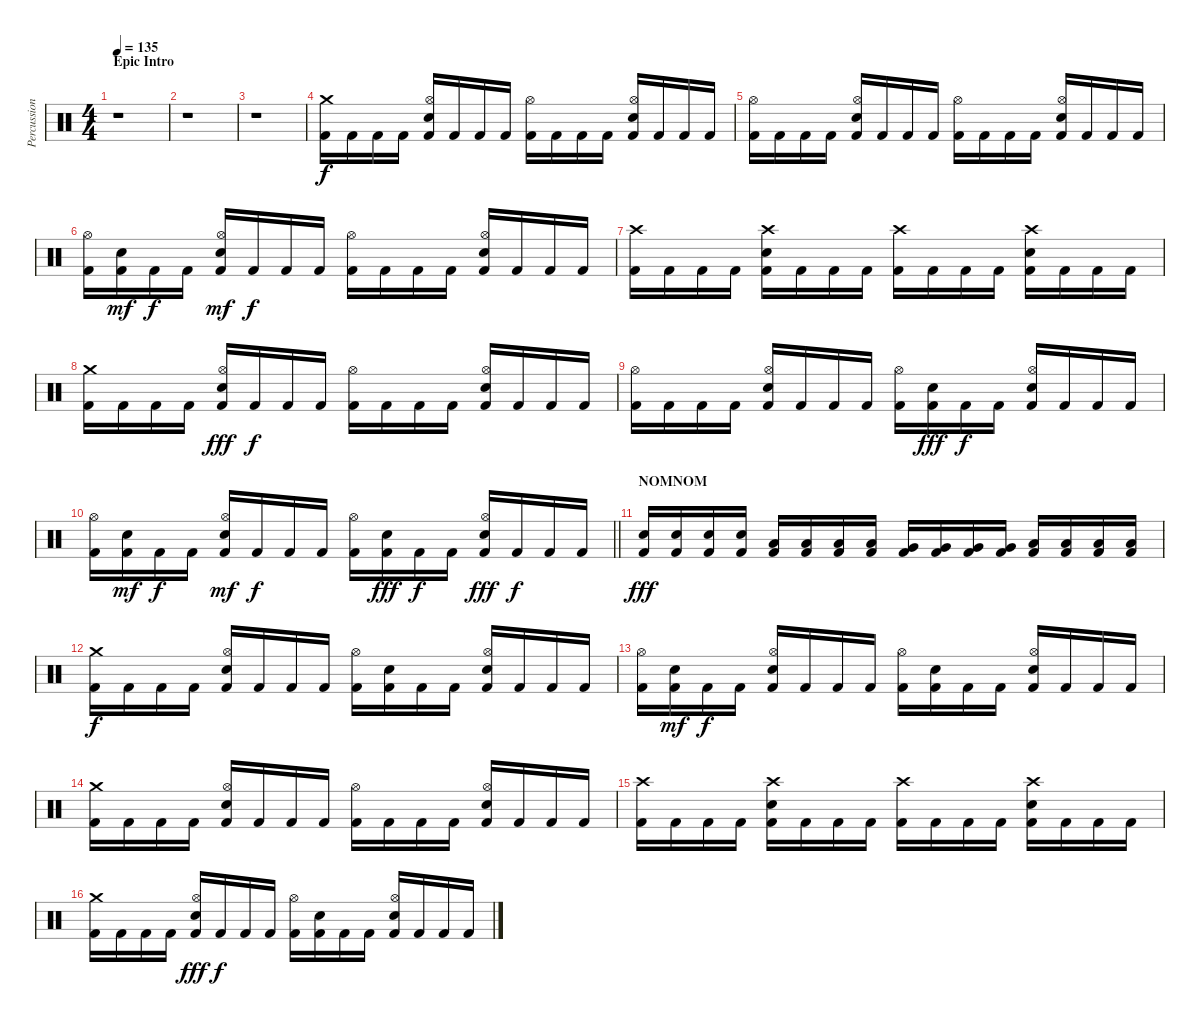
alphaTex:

\track ("Percussion" "Percussion") {instrument percussion}
\staff {score}
\articulation defaults
\ts (4 4)
\section ("" "Epic Intro")
\tempo 135
\clef neutral
\ks c
r.1{dy f} |
r.1 |
r.1 |
("Crash medium (hit)" "Kick (hit) 2").16 "Kick (hit) 2".16 "Kick (hit) 2".16 "Kick (hit) 2".16 ("Hi-Hat (open)" "Electric Snare (hit)" "Kick (hit) 2").16 "Kick (hit) 2".16 "Kick (hit) 2".16 "Kick (hit) 2".16 ("Hi-Hat (open)" "Kick (hit) 2").16 "Kick (hit) 2".16 "Kick (hit) 2".16 "Kick (hit) 2".16 ("Hi-Hat (open)" "Electric Snare (hit)" "Kick (hit) 2").16 "Kick (hit) 2".16 "Kick (hit) 2".16 "Kick (hit) 2".16 |
("Hi-Hat (open)" "Kick (hit) 2").16 "Kick (hit) 2".16 "Kick (hit) 2".16 "Kick (hit) 2".16 ("Hi-Hat (open)" "Electric Snare (hit)" "Kick (hit) 2").16 "Kick (hit) 2".16 "Kick (hit) 2".16 "Kick (hit) 2".16 ("Hi-Hat (open)" "Kick (hit) 2").16 "Kick (hit) 2".16 "Kick (hit) 2".16 "Kick (hit) 2".16 ("Hi-Hat (open)" "Electric Snare (hit)" "Kick (hit) 2").16 "Kick (hit) 2".16 "Kick (hit) 2".16 "Kick (hit) 2".16 |
("Hi-Hat (open)" "Kick (hit) 2").16 ("Electric Snare (hit)" "Kick (hit) 2").16{dy mf} "Kick (hit) 2".16{dy f} "Kick (hit) 2".16 ("Hi-Hat (open)" "Electric Snare (hit)" "Kick (hit) 2").16{dy mf} "Kick (hit) 2".16{dy f} "Kick (hit) 2".16 "Kick (hit) 2".16 ("Hi-Hat (open)" "Kick (hit) 2").16 "Kick (hit) 2".16 "Kick (hit) 2".16 "Kick (hit) 2".16 ("Hi-Hat (open)" "Electric Snare (hit)" "Kick (hit) 2").16 "Kick (hit) 2".16 "Kick (hit) 2".16 "Kick (hit) 2".16 |
("Crash high (hit)" "Kick (hit) 2").16 "Kick (hit) 2".16 "Kick (hit) 2".16 "Kick (hit) 2".16 ("Crash high (hit)" "Electric Snare (hit)" "Kick (hit) 2").16 "Kick (hit) 2".16 "Kick (hit) 2".16 "Kick (hit) 2".16 ("Crash high (hit)" "Kick (hit) 2").16 "Kick (hit) 2".16 "Kick (hit) 2".16 "Kick (hit) 2".16 ("Crash high (hit)" "Electric Snare (hit)" "Kick (hit) 2").16 "Kick (hit) 2".16 "Kick (hit) 2".16 "Kick (hit) 2".16 |
("Crash medium (hit)" "Kick (hit) 2").16 "Kick (hit) 2".16 "Kick (hit) 2".16 "Kick (hit) 2".16 ("Hi-Hat (open)" "Electric Snare (hit)" "Kick (hit) 2").16{dy fff} "Kick (hit) 2".16{dy f} "Kick (hit) 2".16 "Kick (hit) 2".16 ("Hi-Hat (open)" "Kick (hit) 2").16 "Kick (hit) 2".16 "Kick (hit) 2".16 "Kick (hit) 2".16 ("Hi-Hat (open)" "Electric Snare (hit)" "Kick (hit) 2").16 "Kick (hit) 2".16 "Kick (hit) 2".16 "Kick (hit) 2".16 |
("Hi-Hat (open)" "Kick (hit) 2").16 "Kick (hit) 2".16 "Kick (hit) 2".16 "Kick (hit) 2".16 ("Hi-Hat (open)" "Electric Snare (hit)" "Kick (hit) 2").16 "Kick (hit) 2".16 "Kick (hit) 2".16 "Kick (hit) 2".16 ("Hi-Hat (open)" "Kick (hit) 2").16 ("Electric Snare (hit)" "Kick (hit) 2").16{dy fff} "Kick (hit) 2".16{dy f} "Kick (hit) 2".16 ("Hi-Hat (open)" "Electric Snare (hit)" "Kick (hit) 2").16 "Kick (hit) 2".16 "Kick (hit) 2".16 "Kick (hit) 2".16 |
\barLineRight lightlight
("Hi-Hat (open)" "Kick (hit) 2").16 ("Electric Snare (hit)" "Kick (hit) 2").16{dy mf} "Kick (hit) 2".16{dy f} "Kick (hit) 2".16 ("Hi-Hat (open)" "Electric Snare (hit)" "Kick (hit) 2").16{dy mf} "Kick (hit) 2".16{dy f} "Kick (hit) 2".16 "Kick (hit) 2".16 ("Hi-Hat (open)" "Kick (hit) 2").16 ("Electric Snare (hit)" "Kick (hit) 2").16{dy fff} "Kick (hit) 2".16{dy f} "Kick (hit) 2".16 ("Hi-Hat (open)" "Electric Snare (hit)" "Kick (hit) 2").16{dy fff} "Kick (hit) 2".16{dy f} "Kick (hit) 2".16 "Kick (hit) 2".16 |
\section ("" "NOMNOM")
("Electric Snare (hit)" "Kick (hit) 2").16{dy fff} ("Electric Snare (hit)" "Kick (hit) 2").16 ("Electric Snare (hit)" "Kick (hit) 2").16 ("Electric Snare (hit)" "Kick (hit) 2").16 ("Low Tom (hit)" "Kick (hit) 2").16 ("Low Tom (hit)" "Kick (hit) 2").16 ("Low Tom (hit)" "Kick (hit) 2").16 ("Low Tom (hit)" "Kick (hit) 2").16 ("Very Low Tom (hit)" "Kick (hit) 2").16 ("Very Low Tom (hit)" "Kick (hit) 2").16 ("Very Low Tom (hit)" "Kick (hit) 2").16 ("Very Low Tom (hit)" "Kick (hit) 2").16 ("Low Floor Tom (hit)" "Kick (hit) 2").16 ("Low Floor Tom (hit)" "Kick (hit) 2").16 ("Low Floor Tom (hit)" "Kick (hit) 2").16 ("Low Floor Tom (hit)" "Kick (hit) 2").16 |
("Crash medium (hit)" "Kick (hit) 2").16{dy f} "Kick (hit) 2".16 "Kick (hit) 2".16 "Kick (hit) 2".16 ("Hi-Hat (open)" "Electric Snare (hit)" "Kick (hit) 2").16 "Kick (hit) 2".16 "Kick (hit) 2".16 "Kick (hit) 2".16 ("Hi-Hat (open)" "Kick (hit) 2").16 ("Electric Snare (hit)" "Kick (hit) 2").16 "Kick (hit) 2".16 "Kick (hit) 2".16 ("Hi-Hat (open)" "Electric Snare (hit)" "Kick (hit) 2").16 "Kick (hit) 2".16 "Kick (hit) 2".16 "Kick (hit) 2".16 |
("Hi-Hat (open)" "Kick (hit) 2").16 ("Electric Snare (hit)" "Kick (hit) 2").16{dy mf} "Kick (hit) 2".16{dy f} "Kick (hit) 2".16 ("Hi-Hat (open)" "Electric Snare (hit)" "Kick (hit) 2").16 "Kick (hit) 2".16 "Kick (hit) 2".16 "Kick (hit) 2".16 ("Hi-Hat (open)" "Kick (hit) 2").16 ("Electric Snare (hit)" "Kick (hit) 2").16 "Kick (hit) 2".16 "Kick (hit) 2".16 ("Hi-Hat (open)" "Electric Snare (hit)" "Kick (hit) 2").16 "Kick (hit) 2".16 "Kick (hit) 2".16 "Kick (hit) 2".16 |
("Crash medium (hit)" "Kick (hit) 2").16 "Kick (hit) 2".16 "Kick (hit) 2".16 "Kick (hit) 2".16 ("Hi-Hat (open)" "Electric Snare (hit)" "Kick (hit) 2").16 "Kick (hit) 2".16 "Kick (hit) 2".16 "Kick (hit) 2".16 ("Hi-Hat (open)" "Kick (hit) 2").16 "Kick (hit) 2".16 "Kick (hit) 2".16 "Kick (hit) 2".16 ("Hi-Hat (open)" "Electric Snare (hit)" "Kick (hit) 2").16 "Kick (hit) 2".16 "Kick (hit) 2".16 "Kick (hit) 2".16 |
("Crash high (hit)" "Kick (hit) 2").16 "Kick (hit) 2".16 "Kick (hit) 2".16 "Kick (hit) 2".16 ("Crash high (hit)" "Electric Snare (hit)" "Kick (hit) 2").16 "Kick (hit) 2".16 "Kick (hit) 2".16 "Kick (hit) 2".16 ("Crash high (hit)" "Kick (hit) 2").16 "Kick (hit) 2".16 "Kick (hit) 2".16 "Kick (hit) 2".16 ("Crash high (hit)" "Electric Snare (hit)" "Kick (hit) 2").16 "Kick (hit) 2".16 "Kick (hit) 2".16 "Kick (hit) 2".16 |
("Crash medium (hit)" "Kick (hit) 2").16 "Kick (hit) 2".16 "Kick (hit) 2".16 "Kick (hit) 2".16 ("Hi-Hat (open)" "Electric Snare (hit)" "Kick (hit) 2").16{dy fff} "Kick (hit) 2".16{dy f} "Kick (hit) 2".16 "Kick (hit) 2".16 ("Hi-Hat (open)" "Kick (hit) 2").16 ("Electric Snare (hit)" "Kick (hit) 2").16 "Kick (hit) 2".16 "Kick (hit) 2".16 ("Hi-Hat (open)" "Electric Snare (hit)" "Kick (hit) 2").16 "Kick (hit) 2".16 "Kick (hit) 2".16 "Kick (hit) 2".16
